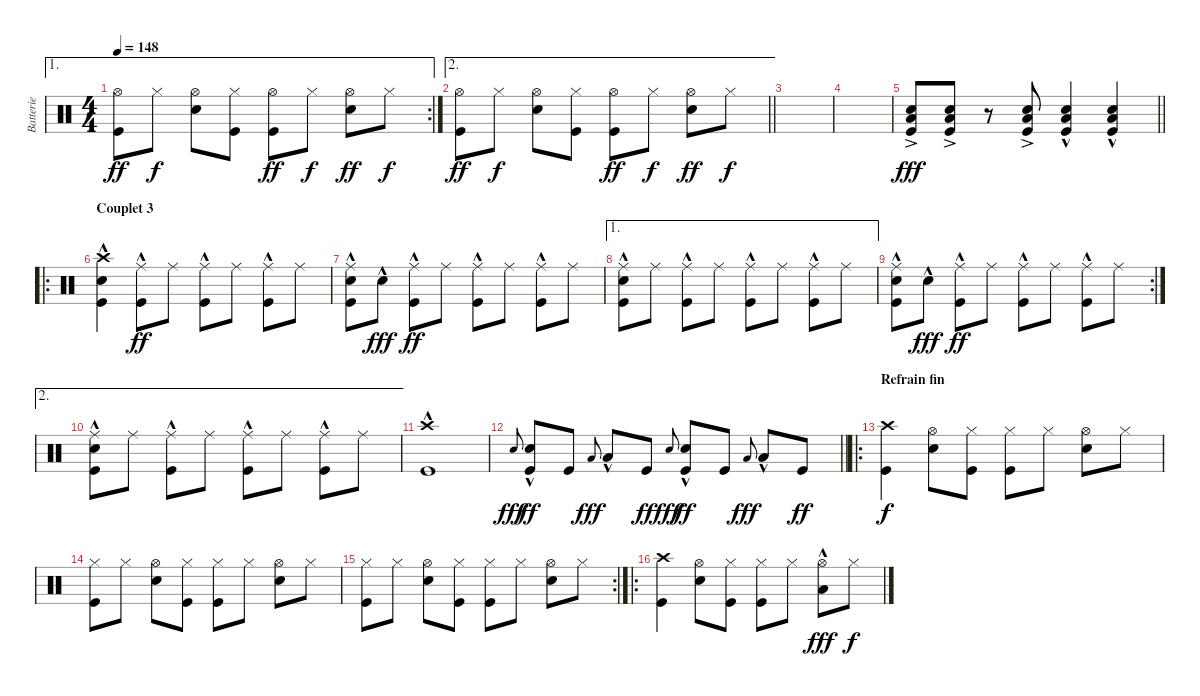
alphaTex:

\track ("Batterie" "Batterie") {instrument percussion}
\staff {score}
\articulation defaults
\ae 1
\rc 2
\ts (4 4)
\tempo 148
\clef neutral
\ks c
("Kick (hit)" "Hi-Hat (open)").8{dy ff} "Hi-Hat (closed)".8{dy f} ("Snare (hit) 2" "Hi-Hat (open)").8 ("Hi-Hat (closed)" "Kick (hit)").8 ("Kick (hit)" "Hi-Hat (open)").8{dy ff} "Hi-Hat (closed)".8{dy f} ("Hi-Hat (open)" "Snare (hit) 2").8{dy ff} "Hi-Hat (closed)".8{dy f} |
\ae 2
\barLineRight lightlight
("Kick (hit)" "Hi-Hat (open)").8{dy ff} "Hi-Hat (closed)".8{dy f} ("Snare (hit) 2" "Hi-Hat (open)").8 ("Hi-Hat (closed)" "Kick (hit)").8 ("Kick (hit)" "Hi-Hat (open)").8{dy ff} "Hi-Hat (closed)".8{dy f} ("Hi-Hat (open)" "Snare (hit) 2").8{dy ff} "Hi-Hat (closed)".8{dy f} |
|
|
\barLineRight lightlight
("Kick (hit)"{ac} "Low Floor Tom (hit)"{ac} "Snare (hit) 2"{ac}).8{dy fff} ("Low Floor Tom (hit)"{ac} "Snare (hit) 2"{ac} "Kick (hit)"{ac}).8 r.8 ("Snare (hit) 2"{ac} "Kick (hit)"{ac} "Low Floor Tom (hit)"{ac}).8 ("Snare (hit) 2"{hac} "Kick (hit)"{hac} "Low Floor Tom (hit)"{hac}).4 ("Snare (hit) 2"{hac} "Low Floor Tom (hit)"{hac} "Kick (hit)"{hac}).4 |
\ro
\section ("" "Couplet 3")
("Kick (hit)"{hac} "Crash high (hit)" "Snare (hit) 2").4 ("Kick (hit)"{hac} "Ride (middle)").8{dy ff} "Ride (middle)".8 ("Kick (hit)"{hac} "Ride (middle)").8 "Ride (middle)".8 ("Kick (hit)"{hac} "Ride (middle)").8 "Ride (middle)".8 |
("Kick (hit)"{hac} "Snare (hit) 2"{hac} "Ride (middle)").8 "Snare (hit) 2"{hac}.8{dy fff} ("Kick (hit)"{hac} "Ride (middle)").8{dy ff} "Ride (middle)".8 ("Kick (hit)"{hac} "Ride (middle)").8 "Ride (middle)".8 ("Kick (hit)"{hac} "Ride (middle)").8 "Ride (middle)".8 |
\ae 1
("Kick (hit)"{hac} "Snare (hit) 2" "Ride (middle)").8 "Ride (middle)".8 ("Kick (hit)"{hac} "Ride (middle)").8 "Ride (middle)".8 ("Kick (hit)"{hac} "Ride (middle)").8 "Ride (middle)".8 ("Kick (hit)"{hac} "Ride (middle)").8 "Ride (middle)".8 |
\rc 2
("Kick (hit)"{hac} "Snare (hit) 2"{hac} "Ride (middle)").8 "Snare (hit) 2"{hac}.8{dy fff} ("Kick (hit)"{hac} "Ride (middle)").8{dy ff} "Ride (middle)".8 ("Kick (hit)"{hac} "Ride (middle)").8 "Ride (middle)".8 ("Kick (hit)"{hac} "Ride (middle)").8 "Ride (middle)".8 |
\ae 2
("Kick (hit)"{hac} "Snare (hit) 2" "Ride (middle)").8 "Ride (middle)".8 ("Kick (hit)"{hac} "Ride (middle)").8 "Ride (middle)".8 ("Kick (hit)"{hac} "Ride (middle)").8 "Ride (middle)".8 ("Kick (hit)"{hac} "Ride (middle)").8 "Ride (middle)".8 |
("Kick (hit)"{hac} "Crash high (hit)").1 |
\barLineRight lightlight "Snare (hit) 2".8{gr onbeat dy fff}
("Snare (hit) 2"{hac} "Kick (hit)").8{dy ff} "Kick (hit)".8 "Low Tom (hit)".8{gr onbeat dy fff} "Low Tom (hit)"{hac}.8 "Kick (hit)".8{dy ff} "Snare (hit) 2".8{gr onbeat dy fff} ("Snare (hit) 2"{hac} "Kick (hit)").8{dy ff} "Kick (hit)".8 "Low Tom (hit)".8{gr onbeat dy fff} "Low Tom (hit)"{hac}.8 "Kick (hit)".8{dy ff} |
\ro
\section ("" "Refrain fin")
("Kick (hit)" "Crash high (hit)").4{dy f} ("Snare (hit) 2" "Hi-Hat (open)").8 ("Kick (hit)" "Hi-Hat (closed)").8 ("Kick (hit)" "Hi-Hat (closed)").8 "Hi-Hat (closed)".8 ("Snare (hit) 2" "Hi-Hat (open)").8 "Hi-Hat (closed)".8 |
("Kick (hit)" "Hi-Hat (closed)").8 "Hi-Hat (closed)".8 ("Snare (hit) 2" "Hi-Hat (open)").8 ("Hi-Hat (closed)" "Kick (hit)").8 ("Kick (hit)" "Hi-Hat (closed)").8 "Hi-Hat (closed)".8 ("Hi-Hat (open)" "Snare (hit) 2").8 "Hi-Hat (closed)".8 |
\rc 2
("Kick (hit)" "Hi-Hat (closed)").8 "Hi-Hat (closed)".8 ("Snare (hit) 2" "Hi-Hat (open)").8 ("Hi-Hat (closed)" "Kick (hit)").8 ("Kick (hit)" "Hi-Hat (closed)").8 "Hi-Hat (closed)".8 ("Hi-Hat (open)" "Snare (hit) 2").8 "Hi-Hat (closed)".8 |
\ro
("Kick (hit)" "Crash high (hit)").4 ("Snare (hit) 2" "Hi-Hat (open)").8 ("Kick (hit)" "Hi-Hat (closed)").8 ("Kick (hit)" "Hi-Hat (closed)").8 "Hi-Hat (closed)".8 ("Hi-Hat (open)" "Low Floor Tom (hit)"{hac}).8{dy fff} "Hi-Hat (closed)".8{dy f}
